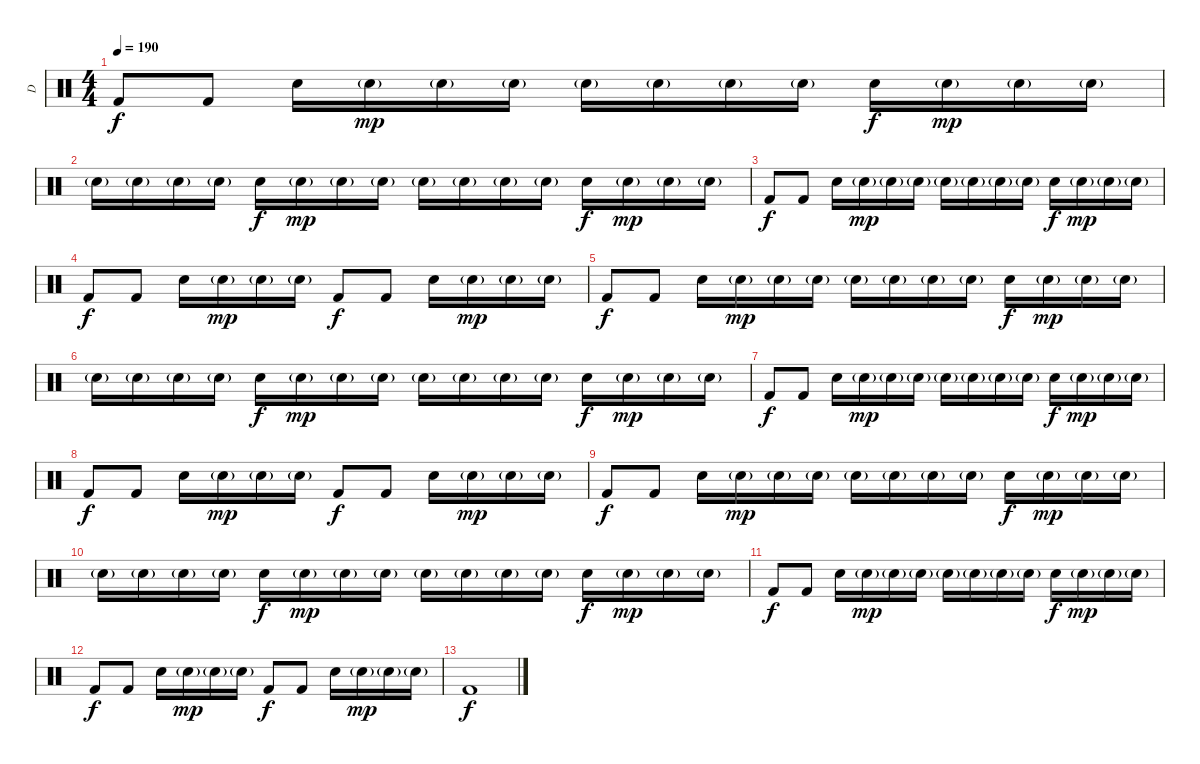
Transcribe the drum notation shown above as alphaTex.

\track ("D" "D") {instrument percussion}
\staff {score}
\articulation defaults
\ts (4 4)
\tempo 190
\clef neutral
\ks c "Kick (hit) 2".8{dy f} "Kick (hit) 2".8 "Electric Snare (hit)".16 "Electric Snare (hit)"{g}.16{dy mp} "Electric Snare (hit)"{g}.16 "Electric Snare (hit)"{g}.16 "Electric Snare (hit)"{g}.16 "Electric Snare (hit)"{g}.16 "Electric Snare (hit)"{g}.16 "Electric Snare (hit)"{g}.16 "Electric Snare (hit)".16{dy f} "Electric Snare (hit)"{g}.16{dy mp} "Electric Snare (hit)"{g}.16 "Electric Snare (hit)"{g}.16
|
"Electric Snare (hit)"{g}.16 "Electric Snare (hit)"{g}.16 "Electric Snare (hit)"{g}.16 "Electric Snare (hit)"{g}.16 "Electric Snare (hit)".16{dy f} "Electric Snare (hit)"{g}.16{dy mp} "Electric Snare (hit)"{g}.16 "Electric Snare (hit)"{g}.16 "Electric Snare (hit)"{g}.16 "Electric Snare (hit)"{g}.16 "Electric Snare (hit)"{g}.16 "Electric Snare (hit)"{g}.16 "Electric Snare (hit)".16{dy f} "Electric Snare (hit)"{g}.16{dy mp} "Electric Snare (hit)"{g}.16 "Electric Snare (hit)"{g}.16 |
"Kick (hit) 2".8{dy f} "Kick (hit) 2".8 "Electric Snare (hit)".16 "Electric Snare (hit)"{g}.16{dy mp} "Electric Snare (hit)"{g}.16 "Electric Snare (hit)"{g}.16 "Electric Snare (hit)"{g}.16 "Electric Snare (hit)"{g}.16 "Electric Snare (hit)"{g}.16 "Electric Snare (hit)"{g}.16 "Electric Snare (hit)".16{dy f} "Electric Snare (hit)"{g}.16{dy mp} "Electric Snare (hit)"{g}.16 "Electric Snare (hit)"{g}.16 |
"Kick (hit) 2".8{dy f} "Kick (hit) 2".8 "Electric Snare (hit)".16 "Electric Snare (hit)"{g}.16{dy mp} "Electric Snare (hit)"{g}.16 "Electric Snare (hit)"{g}.16 "Kick (hit) 2".8{dy f} "Kick (hit) 2".8 "Electric Snare (hit)".16 "Electric Snare (hit)"{g}.16{dy mp} "Electric Snare (hit)"{g}.16 "Electric Snare (hit)"{g}.16 |
"Kick (hit) 2".8{dy f} "Kick (hit) 2".8 "Electric Snare (hit)".16 "Electric Snare (hit)"{g}.16{dy mp} "Electric Snare (hit)"{g}.16 "Electric Snare (hit)"{g}.16 "Electric Snare (hit)"{g}.16 "Electric Snare (hit)"{g}.16 "Electric Snare (hit)"{g}.16 "Electric Snare (hit)"{g}.16 "Electric Snare (hit)".16{dy f} "Electric Snare (hit)"{g}.16{dy mp} "Electric Snare (hit)"{g}.16 "Electric Snare (hit)"{g}.16 |
"Electric Snare (hit)"{g}.16 "Electric Snare (hit)"{g}.16 "Electric Snare (hit)"{g}.16 "Electric Snare (hit)"{g}.16 "Electric Snare (hit)".16{dy f} "Electric Snare (hit)"{g}.16{dy mp} "Electric Snare (hit)"{g}.16 "Electric Snare (hit)"{g}.16 "Electric Snare (hit)"{g}.16 "Electric Snare (hit)"{g}.16 "Electric Snare (hit)"{g}.16 "Electric Snare (hit)"{g}.16 "Electric Snare (hit)".16{dy f} "Electric Snare (hit)"{g}.16{dy mp} "Electric Snare (hit)"{g}.16 "Electric Snare (hit)"{g}.16 |
"Kick (hit) 2".8{dy f} "Kick (hit) 2".8 "Electric Snare (hit)".16 "Electric Snare (hit)"{g}.16{dy mp} "Electric Snare (hit)"{g}.16 "Electric Snare (hit)"{g}.16 "Electric Snare (hit)"{g}.16 "Electric Snare (hit)"{g}.16 "Electric Snare (hit)"{g}.16 "Electric Snare (hit)"{g}.16 "Electric Snare (hit)".16{dy f} "Electric Snare (hit)"{g}.16{dy mp} "Electric Snare (hit)"{g}.16 "Electric Snare (hit)"{g}.16 |
"Kick (hit) 2".8{dy f} "Kick (hit) 2".8 "Electric Snare (hit)".16 "Electric Snare (hit)"{g}.16{dy mp} "Electric Snare (hit)"{g}.16 "Electric Snare (hit)"{g}.16 "Kick (hit) 2".8{dy f} "Kick (hit) 2".8 "Electric Snare (hit)".16 "Electric Snare (hit)"{g}.16{dy mp} "Electric Snare (hit)"{g}.16 "Electric Snare (hit)"{g}.16 |
"Kick (hit) 2".8{dy f} "Kick (hit) 2".8 "Electric Snare (hit)".16 "Electric Snare (hit)"{g}.16{dy mp} "Electric Snare (hit)"{g}.16 "Electric Snare (hit)"{g}.16 "Electric Snare (hit)"{g}.16 "Electric Snare (hit)"{g}.16 "Electric Snare (hit)"{g}.16 "Electric Snare (hit)"{g}.16 "Electric Snare (hit)".16{dy f} "Electric Snare (hit)"{g}.16{dy mp} "Electric Snare (hit)"{g}.16 "Electric Snare (hit)"{g}.16 |
"Electric Snare (hit)"{g}.16 "Electric Snare (hit)"{g}.16 "Electric Snare (hit)"{g}.16 "Electric Snare (hit)"{g}.16 "Electric Snare (hit)".16{dy f} "Electric Snare (hit)"{g}.16{dy mp} "Electric Snare (hit)"{g}.16 "Electric Snare (hit)"{g}.16 "Electric Snare (hit)"{g}.16 "Electric Snare (hit)"{g}.16 "Electric Snare (hit)"{g}.16 "Electric Snare (hit)"{g}.16 "Electric Snare (hit)".16{dy f} "Electric Snare (hit)"{g}.16{dy mp} "Electric Snare (hit)"{g}.16 "Electric Snare (hit)"{g}.16 |
"Kick (hit) 2".8{dy f} "Kick (hit) 2".8 "Electric Snare (hit)".16 "Electric Snare (hit)"{g}.16{dy mp} "Electric Snare (hit)"{g}.16 "Electric Snare (hit)"{g}.16 "Electric Snare (hit)"{g}.16 "Electric Snare (hit)"{g}.16 "Electric Snare (hit)"{g}.16 "Electric Snare (hit)"{g}.16 "Electric Snare (hit)".16{dy f} "Electric Snare (hit)"{g}.16{dy mp} "Electric Snare (hit)"{g}.16 "Electric Snare (hit)"{g}.16 |
"Kick (hit) 2".8{dy f} "Kick (hit) 2".8 "Electric Snare (hit)".16 "Electric Snare (hit)"{g}.16{dy mp} "Electric Snare (hit)"{g}.16 "Electric Snare (hit)"{g}.16 "Kick (hit) 2".8{dy f} "Kick (hit) 2".8 "Electric Snare (hit)".16 "Electric Snare (hit)"{g}.16{dy mp} "Electric Snare (hit)"{g}.16 "Electric Snare (hit)"{g}.16 |
"Kick (hit) 2".1{dy f}
